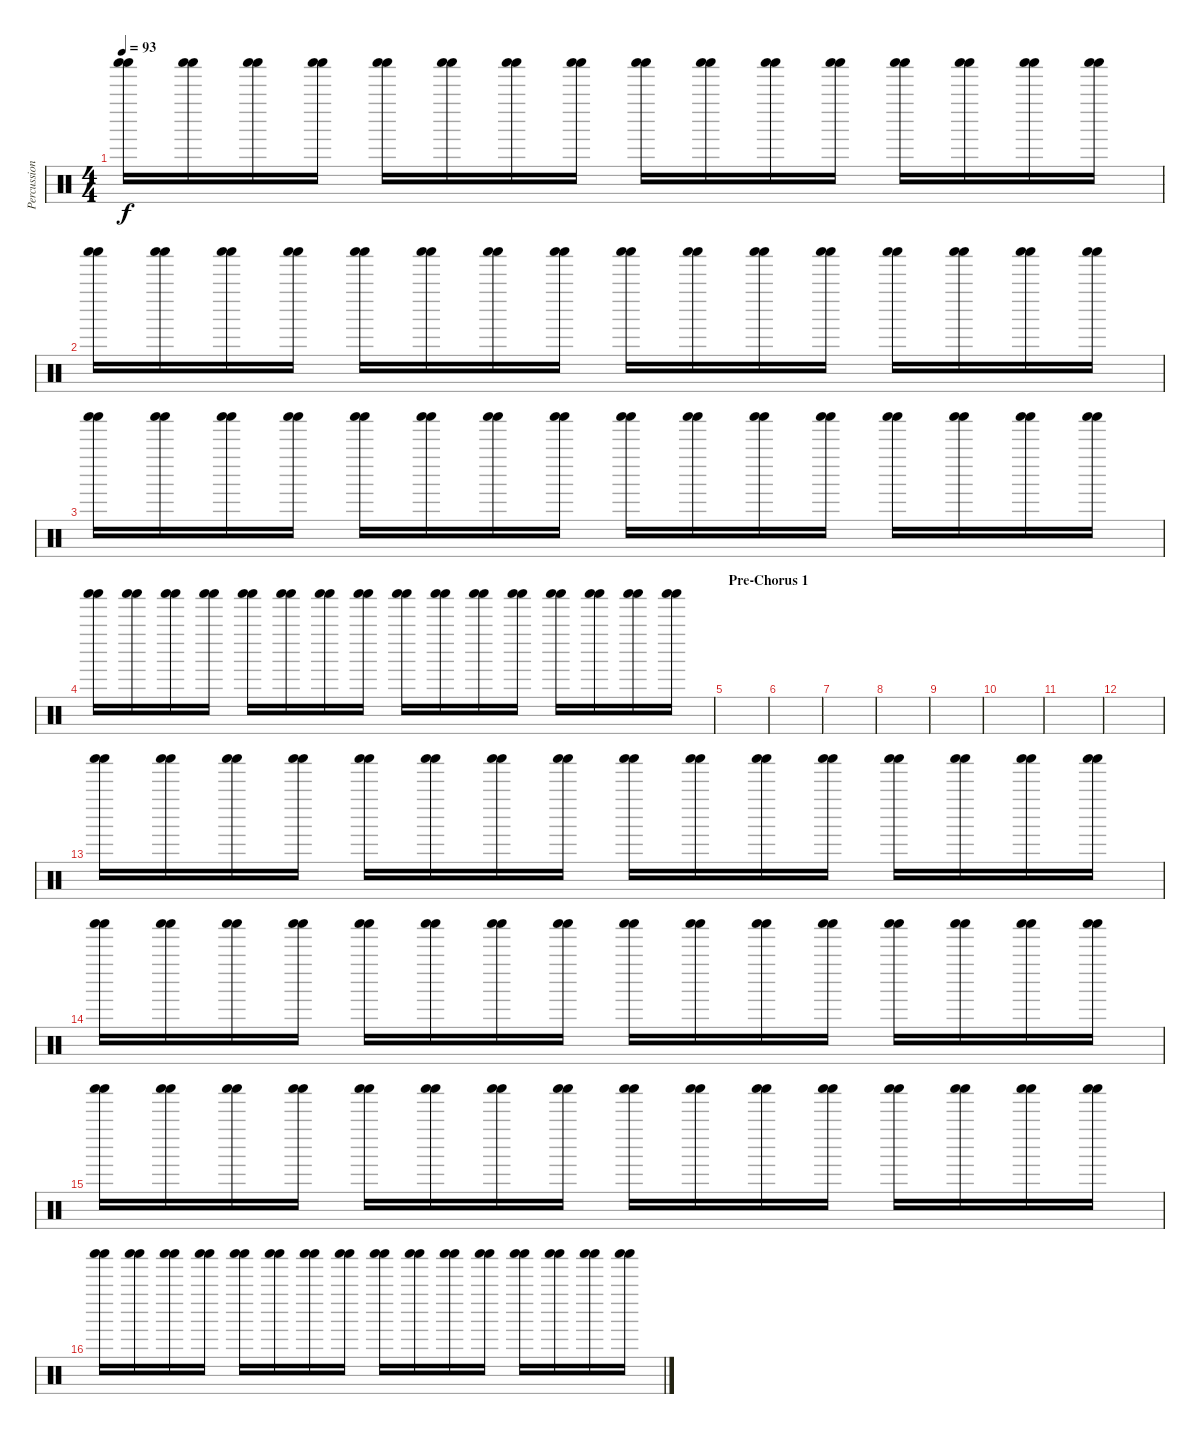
\track ("Percussions" "Percussion") {instrument percussion}
\staff {score}
\articulation defaults
\ts (4 4)
\tempo 93
\clef neutral
\ks c
("Shaker (hit)" "Shaker (hit)").16{dy f} ("Shaker (hit)" "Shaker (hit)").16 ("Shaker (hit)" "Shaker (hit)").16 ("Shaker (hit)" "Shaker (hit)").16 ("Shaker (hit)" "Shaker (hit)").16 ("Shaker (hit)" "Shaker (hit)").16 ("Shaker (hit)" "Shaker (hit)").16 ("Shaker (hit)" "Shaker (hit)").16 ("Shaker (hit)" "Shaker (hit)").16 ("Shaker (hit)" "Shaker (hit)").16 ("Shaker (hit)" "Shaker (hit)").16 ("Shaker (hit)" "Shaker (hit)").16 ("Shaker (hit)" "Shaker (hit)").16 ("Shaker (hit)" "Shaker (hit)").16 ("Shaker (hit)" "Shaker (hit)").16 ("Shaker (hit)" "Shaker (hit)").16 |
("Shaker (hit)" "Shaker (hit)").16 ("Shaker (hit)" "Shaker (hit)").16 ("Shaker (hit)" "Shaker (hit)").16 ("Shaker (hit)" "Shaker (hit)").16 ("Shaker (hit)" "Shaker (hit)").16 ("Shaker (hit)" "Shaker (hit)").16 ("Shaker (hit)" "Shaker (hit)").16 ("Shaker (hit)" "Shaker (hit)").16 ("Shaker (hit)" "Shaker (hit)").16 ("Shaker (hit)" "Shaker (hit)").16 ("Shaker (hit)" "Shaker (hit)").16 ("Shaker (hit)" "Shaker (hit)").16 ("Shaker (hit)" "Shaker (hit)").16 ("Shaker (hit)" "Shaker (hit)").16 ("Shaker (hit)" "Shaker (hit)").16 ("Shaker (hit)" "Shaker (hit)").16 |
("Shaker (hit)" "Shaker (hit)").16 ("Shaker (hit)" "Shaker (hit)").16 ("Shaker (hit)" "Shaker (hit)").16 ("Shaker (hit)" "Shaker (hit)").16 ("Shaker (hit)" "Shaker (hit)").16 ("Shaker (hit)" "Shaker (hit)").16 ("Shaker (hit)" "Shaker (hit)").16 ("Shaker (hit)" "Shaker (hit)").16 ("Shaker (hit)" "Shaker (hit)").16 ("Shaker (hit)" "Shaker (hit)").16 ("Shaker (hit)" "Shaker (hit)").16 ("Shaker (hit)" "Shaker (hit)").16 ("Shaker (hit)" "Shaker (hit)").16 ("Shaker (hit)" "Shaker (hit)").16 ("Shaker (hit)" "Shaker (hit)").16 ("Shaker (hit)" "Shaker (hit)").16 |
("Shaker (hit)" "Shaker (hit)").16 ("Shaker (hit)" "Shaker (hit)").16 ("Shaker (hit)" "Shaker (hit)").16 ("Shaker (hit)" "Shaker (hit)").16 ("Shaker (hit)" "Shaker (hit)").16 ("Shaker (hit)" "Shaker (hit)").16 ("Shaker (hit)" "Shaker (hit)").16 ("Shaker (hit)" "Shaker (hit)").16 ("Shaker (hit)" "Shaker (hit)").16 ("Shaker (hit)" "Shaker (hit)").16 ("Shaker (hit)" "Shaker (hit)").16 ("Shaker (hit)" "Shaker (hit)").16 ("Shaker (hit)" "Shaker (hit)").16 ("Shaker (hit)" "Shaker (hit)").16 ("Shaker (hit)" "Shaker (hit)").16 ("Shaker (hit)" "Shaker (hit)").16 |
\section ("" "Pre-Chorus 1")
|
|
|
|
|
|
|
|
("Shaker (hit)" "Shaker (hit)").16 ("Shaker (hit)" "Shaker (hit)").16 ("Shaker (hit)" "Shaker (hit)").16 ("Shaker (hit)" "Shaker (hit)").16 ("Shaker (hit)" "Shaker (hit)").16 ("Shaker (hit)" "Shaker (hit)").16 ("Shaker (hit)" "Shaker (hit)").16 ("Shaker (hit)" "Shaker (hit)").16 ("Shaker (hit)" "Shaker (hit)").16 ("Shaker (hit)" "Shaker (hit)").16 ("Shaker (hit)" "Shaker (hit)").16 ("Shaker (hit)" "Shaker (hit)").16 ("Shaker (hit)" "Shaker (hit)").16 ("Shaker (hit)" "Shaker (hit)").16 ("Shaker (hit)" "Shaker (hit)").16 ("Shaker (hit)" "Shaker (hit)").16 |
("Shaker (hit)" "Shaker (hit)").16 ("Shaker (hit)" "Shaker (hit)").16 ("Shaker (hit)" "Shaker (hit)").16 ("Shaker (hit)" "Shaker (hit)").16 ("Shaker (hit)" "Shaker (hit)").16 ("Shaker (hit)" "Shaker (hit)").16 ("Shaker (hit)" "Shaker (hit)").16 ("Shaker (hit)" "Shaker (hit)").16 ("Shaker (hit)" "Shaker (hit)").16 ("Shaker (hit)" "Shaker (hit)").16 ("Shaker (hit)" "Shaker (hit)").16 ("Shaker (hit)" "Shaker (hit)").16 ("Shaker (hit)" "Shaker (hit)").16 ("Shaker (hit)" "Shaker (hit)").16 ("Shaker (hit)" "Shaker (hit)").16 ("Shaker (hit)" "Shaker (hit)").16 |
("Shaker (hit)" "Shaker (hit)").16 ("Shaker (hit)" "Shaker (hit)").16 ("Shaker (hit)" "Shaker (hit)").16 ("Shaker (hit)" "Shaker (hit)").16 ("Shaker (hit)" "Shaker (hit)").16 ("Shaker (hit)" "Shaker (hit)").16 ("Shaker (hit)" "Shaker (hit)").16 ("Shaker (hit)" "Shaker (hit)").16 ("Shaker (hit)" "Shaker (hit)").16 ("Shaker (hit)" "Shaker (hit)").16 ("Shaker (hit)" "Shaker (hit)").16 ("Shaker (hit)" "Shaker (hit)").16 ("Shaker (hit)" "Shaker (hit)").16 ("Shaker (hit)" "Shaker (hit)").16 ("Shaker (hit)" "Shaker (hit)").16 ("Shaker (hit)" "Shaker (hit)").16 |
("Shaker (hit)" "Shaker (hit)").16 ("Shaker (hit)" "Shaker (hit)").16 ("Shaker (hit)" "Shaker (hit)").16 ("Shaker (hit)" "Shaker (hit)").16 ("Shaker (hit)" "Shaker (hit)").16 ("Shaker (hit)" "Shaker (hit)").16 ("Shaker (hit)" "Shaker (hit)").16 ("Shaker (hit)" "Shaker (hit)").16 ("Shaker (hit)" "Shaker (hit)").16 ("Shaker (hit)" "Shaker (hit)").16 ("Shaker (hit)" "Shaker (hit)").16 ("Shaker (hit)" "Shaker (hit)").16 ("Shaker (hit)" "Shaker (hit)").16 ("Shaker (hit)" "Shaker (hit)").16 ("Shaker (hit)" "Shaker (hit)").16 ("Shaker (hit)" "Shaker (hit)").16
